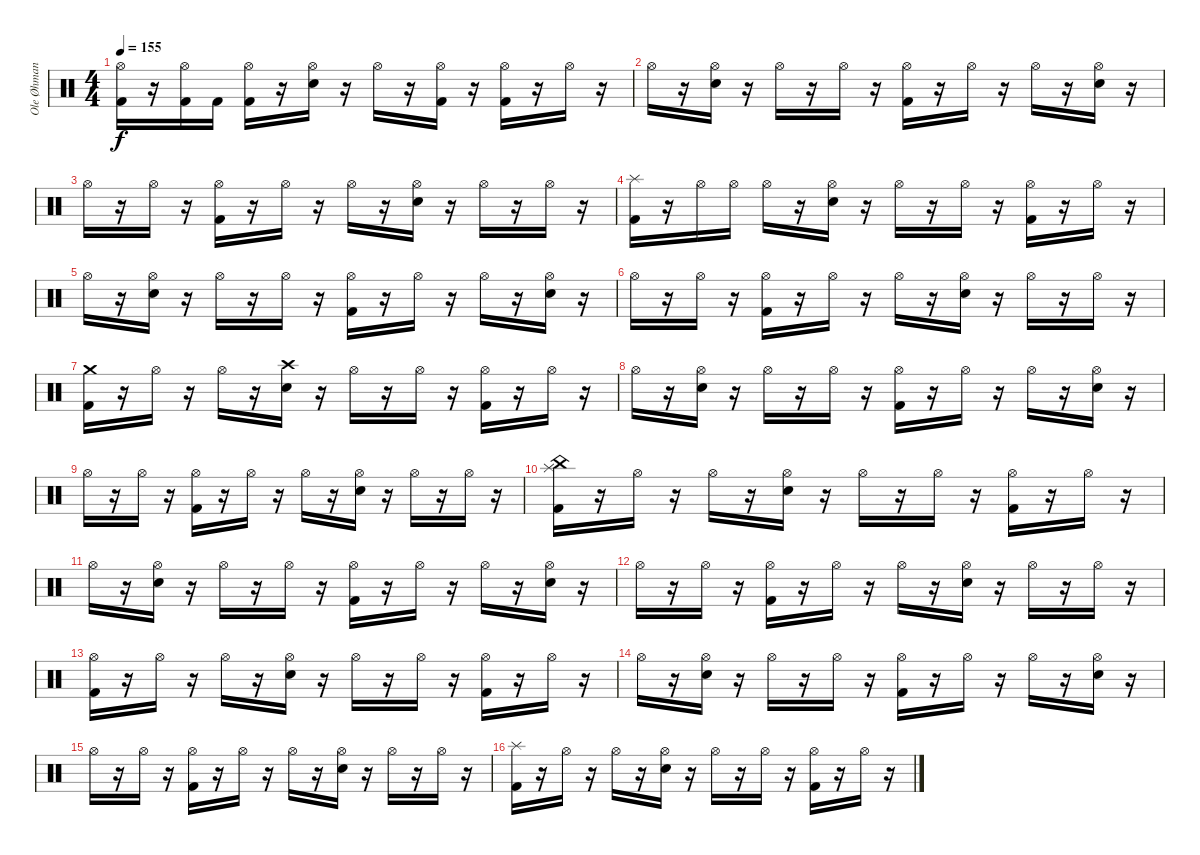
\track ("Ole Øhman (Trommur)" "Ole Øhman ") {instrument percussion}
\staff {score}
\articulation defaults
\ts (4 4)
\tempo 155
\clef neutral
\ks c
("Hi-Hat (open)" "Kick (hit) 2").16{dy f} r.16 ("Hi-Hat (open)" "Kick (hit) 2").16 "Kick (hit) 2".16 ("Hi-Hat (open)" "Kick (hit) 2").16 r.16 ("Hi-Hat (open)" "Electric Snare (hit)").16 r.16 "Hi-Hat (open)".16 r.16 ("Hi-Hat (open)" "Kick (hit) 2").16 r.16 ("Hi-Hat (open)" "Kick (hit) 2").16 r.16 "Hi-Hat (open)".16 r.16 |
"Hi-Hat (open)".16 r.16 ("Hi-Hat (open)" "Electric Snare (hit)").16 r.16 "Hi-Hat (open)".16 r.16 "Hi-Hat (open)".16 r.16 ("Hi-Hat (open)" "Kick (hit) 2").16 r.16 "Hi-Hat (open)".16 r.16 "Hi-Hat (open)".16 r.16 ("Hi-Hat (open)" "Electric Snare (hit)").16 r.16 |
"Hi-Hat (open)".16 r.16 "Hi-Hat (open)".16 r.16 ("Hi-Hat (open)" "Kick (hit) 2").16 r.16 "Hi-Hat (open)".16 r.16 "Hi-Hat (open)".16 r.16 ("Hi-Hat (open)" "Electric Snare (hit)").16 r.16 "Hi-Hat (open)".16 r.16 "Hi-Hat (open)".16 r.16 |
("Splash (hit)" "Kick (hit) 2").16 r.16 "Hi-Hat (open)".16 "Hi-Hat (open)".16 "Hi-Hat (open)".16 r.16 ("Hi-Hat (open)" "Electric Snare (hit)").16 r.16 "Hi-Hat (open)".16 r.16 "Hi-Hat (open)".16 r.16 ("Hi-Hat (open)" "Kick (hit) 2").16 r.16 "Hi-Hat (open)".16 r.16 |
"Hi-Hat (open)".16 r.16 ("Hi-Hat (open)" "Electric Snare (hit)").16 r.16 "Hi-Hat (open)".16 r.16 "Hi-Hat (open)".16 r.16 ("Hi-Hat (open)" "Kick (hit) 2").16 r.16 "Hi-Hat (open)".16 r.16 "Hi-Hat (open)".16 r.16 ("Hi-Hat (open)" "Electric Snare (hit)").16 r.16 |
"Hi-Hat (open)".16 r.16 "Hi-Hat (open)".16 r.16 ("Hi-Hat (open)" "Kick (hit) 2").16 r.16 "Hi-Hat (open)".16 r.16 "Hi-Hat (open)".16 r.16 ("Hi-Hat (open)" "Electric Snare (hit)").16 r.16 "Hi-Hat (open)".16 r.16 "Hi-Hat (open)".16 r.16 |
("Crash medium (hit)" "Kick (hit) 2").16 r.16 "Hi-Hat (open)".16 r.16 "Hi-Hat (open)".16 r.16 ("Crash high (hit)" "Electric Snare (hit)").16 r.16 "Hi-Hat (open)".16 r.16 "Hi-Hat (open)".16 r.16 ("Hi-Hat (open)" "Kick (hit) 2").16 r.16 "Hi-Hat (open)".16 r.16 |
"Hi-Hat (open)".16 r.16 ("Hi-Hat (open)" "Electric Snare (hit)").16 r.16 "Hi-Hat (open)".16 r.16 "Hi-Hat (open)".16 r.16 ("Hi-Hat (open)" "Kick (hit) 2").16 r.16 "Hi-Hat (open)".16 r.16 "Hi-Hat (open)".16 r.16 ("Hi-Hat (open)" "Electric Snare (hit)").16 r.16 |
"Hi-Hat (open)".16 r.16 "Hi-Hat (open)".16 r.16 ("Hi-Hat (open)" "Kick (hit) 2").16 r.16 "Hi-Hat (open)".16 r.16 "Hi-Hat (open)".16 r.16 ("Hi-Hat (open)" "Electric Snare (hit)").16 r.16 "Hi-Hat (open)".16 r.16 "Hi-Hat (open)".16 r.16 |
("China (hit)" "Splash (hit)" "Kick (hit) 2").16 r.16 "Hi-Hat (open)".16 r.16 "Hi-Hat (open)".16 r.16 ("Hi-Hat (open)" "Electric Snare (hit)").16 r.16 "Hi-Hat (open)".16 r.16 "Hi-Hat (open)".16 r.16 ("Hi-Hat (open)" "Kick (hit) 2").16 r.16 "Hi-Hat (open)".16 r.16 |
"Hi-Hat (open)".16 r.16 ("Hi-Hat (open)" "Electric Snare (hit)").16 r.16 "Hi-Hat (open)".16 r.16 "Hi-Hat (open)".16 r.16 ("Hi-Hat (open)" "Kick (hit) 2").16 r.16 "Hi-Hat (open)".16 r.16 "Hi-Hat (open)".16 r.16 ("Hi-Hat (open)" "Electric Snare (hit)").16 r.16 |
"Hi-Hat (open)".16 r.16 "Hi-Hat (open)".16 r.16 ("Hi-Hat (open)" "Kick (hit) 2").16 r.16 "Hi-Hat (open)".16 r.16 "Hi-Hat (open)".16 r.16 ("Hi-Hat (open)" "Electric Snare (hit)").16 r.16 "Hi-Hat (open)".16 r.16 "Hi-Hat (open)".16 r.16 |
("Hi-Hat (open)" "Kick (hit) 2").16 r.16 "Hi-Hat (open)".16 r.16 "Hi-Hat (open)".16 r.16 ("Hi-Hat (open)" "Electric Snare (hit)").16 r.16 "Hi-Hat (open)".16 r.16 "Hi-Hat (open)".16 r.16 ("Hi-Hat (open)" "Kick (hit) 2").16 r.16 "Hi-Hat (open)".16 r.16 |
"Hi-Hat (open)".16 r.16 ("Hi-Hat (open)" "Electric Snare (hit)").16 r.16 "Hi-Hat (open)".16 r.16 "Hi-Hat (open)".16 r.16 ("Hi-Hat (open)" "Kick (hit) 2").16 r.16 "Hi-Hat (open)".16 r.16 "Hi-Hat (open)".16 r.16 ("Hi-Hat (open)" "Electric Snare (hit)").16 r.16 |
"Hi-Hat (open)".16 r.16 "Hi-Hat (open)".16 r.16 ("Hi-Hat (open)" "Kick (hit) 2").16 r.16 "Hi-Hat (open)".16 r.16 "Hi-Hat (open)".16 r.16 ("Hi-Hat (open)" "Electric Snare (hit)").16 r.16 "Hi-Hat (open)".16 r.16 "Hi-Hat (open)".16 r.16 |
("Splash (hit)" "Kick (hit) 2").16 r.16 "Hi-Hat (open)".16 r.16 "Hi-Hat (open)".16 r.16 ("Hi-Hat (open)" "Electric Snare (hit)").16 r.16 "Hi-Hat (open)".16 r.16 "Hi-Hat (open)".16 r.16 ("Hi-Hat (open)" "Kick (hit) 2").16 r.16 "Hi-Hat (open)".16 r.16
